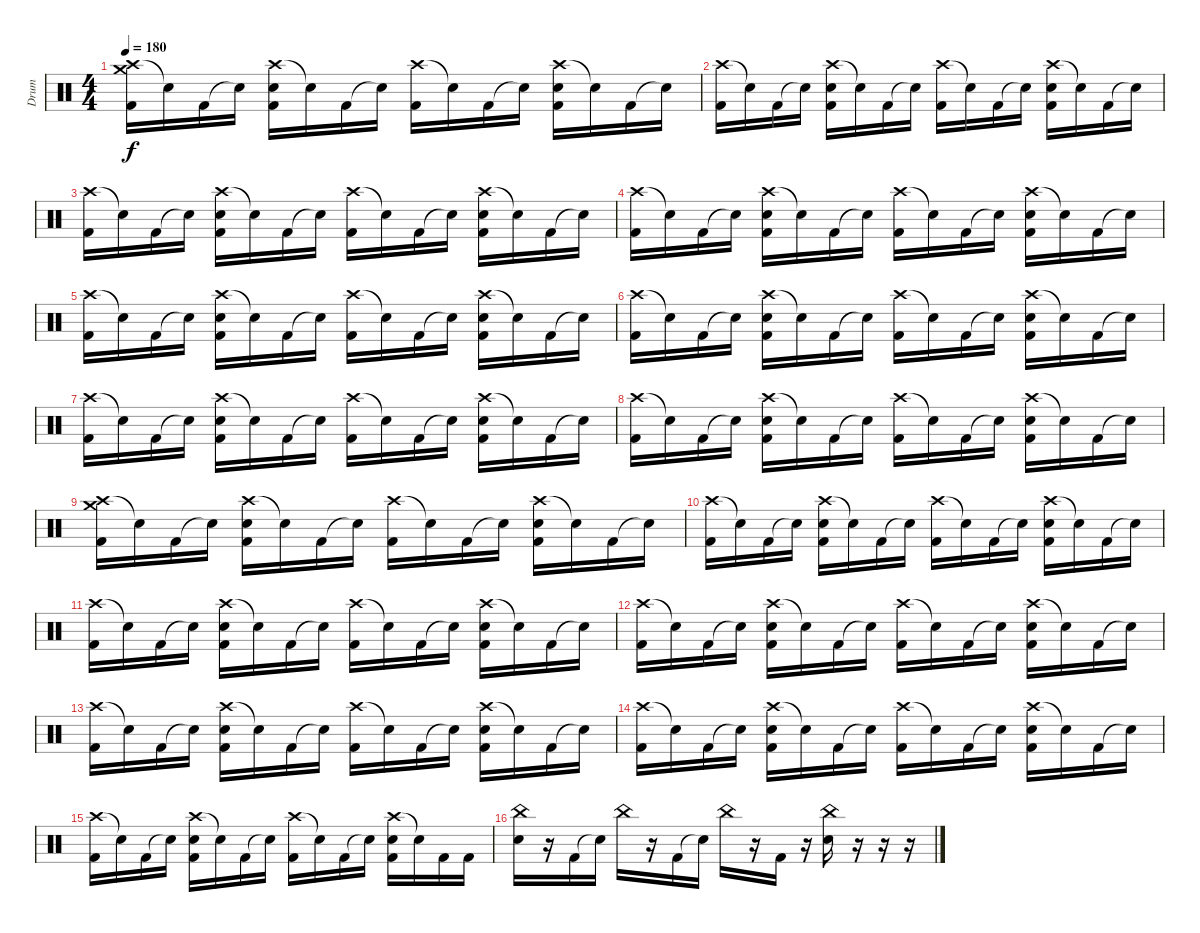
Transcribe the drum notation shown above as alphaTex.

\track ("Drum" "Drum") {instrument percussion}
\staff {score}
\articulation defaults
\ts (4 4)
\tempo 180
\clef neutral
\ks c
("Crash high (hit)" "Crash medium (hit)" "Kick (hit) 2").16{dy f} "Snare (hit)"{t}.16 "Kick (hit) 2".16 "Snare (hit)"{t}.16 ("Crash high (hit)" "Electric Snare (hit)" "Kick (hit) 2").16 "Snare (hit)"{t}.16 "Kick (hit) 2".16 "Snare (hit)"{t}.16 ("Crash high (hit)" "Kick (hit) 2").16 "Snare (hit)"{t}.16 "Kick (hit) 2".16 "Snare (hit)"{t}.16 ("Crash high (hit)" "Electric Snare (hit)" "Kick (hit) 2").16 "Snare (hit)"{t}.16 "Kick (hit) 2".16 "Snare (hit)"{t}.16 |
("Crash high (hit)" "Kick (hit) 2").16 "Snare (hit)"{t}.16 "Kick (hit) 2".16 "Snare (hit)"{t}.16 ("Crash high (hit)" "Electric Snare (hit)" "Kick (hit) 2").16 "Snare (hit)"{t}.16 "Kick (hit) 2".16 "Snare (hit)"{t}.16 ("Crash high (hit)" "Kick (hit) 2").16 "Snare (hit)"{t}.16 "Kick (hit) 2".16 "Snare (hit)"{t}.16 ("Crash high (hit)" "Electric Snare (hit)" "Kick (hit) 2").16 "Snare (hit)"{t}.16 "Kick (hit) 2".16 "Snare (hit)"{t}.16 |
("Crash high (hit)" "Kick (hit) 2").16 "Snare (hit)"{t}.16 "Kick (hit) 2".16 "Snare (hit)"{t}.16 ("Crash high (hit)" "Electric Snare (hit)" "Kick (hit) 2").16 "Snare (hit)"{t}.16 "Kick (hit) 2".16 "Snare (hit)"{t}.16 ("Crash high (hit)" "Kick (hit) 2").16 "Snare (hit)"{t}.16 "Kick (hit) 2".16 "Snare (hit)"{t}.16 ("Crash high (hit)" "Electric Snare (hit)" "Kick (hit) 2").16 "Snare (hit)"{t}.16 "Kick (hit) 2".16 "Snare (hit)"{t}.16 |
("Crash high (hit)" "Kick (hit) 2").16 "Snare (hit)"{t}.16 "Kick (hit) 2".16 "Snare (hit)"{t}.16 ("Crash high (hit)" "Electric Snare (hit)" "Kick (hit) 2").16 "Snare (hit)"{t}.16 "Kick (hit) 2".16 "Snare (hit)"{t}.16 ("Crash high (hit)" "Kick (hit) 2").16 "Snare (hit)"{t}.16 "Kick (hit) 2".16 "Snare (hit)"{t}.16 ("Crash high (hit)" "Electric Snare (hit)" "Kick (hit) 2").16 "Snare (hit)"{t}.16 "Kick (hit) 2".16 "Snare (hit)"{t}.16 |
("Crash high (hit)" "Kick (hit) 2").16 "Snare (hit)"{t}.16 "Kick (hit) 2".16 "Snare (hit)"{t}.16 ("Crash high (hit)" "Electric Snare (hit)" "Kick (hit) 2").16 "Snare (hit)"{t}.16 "Kick (hit) 2".16 "Snare (hit)"{t}.16 ("Crash high (hit)" "Kick (hit) 2").16 "Snare (hit)"{t}.16 "Kick (hit) 2".16 "Snare (hit)"{t}.16 ("Crash high (hit)" "Electric Snare (hit)" "Kick (hit) 2").16 "Snare (hit)"{t}.16 "Kick (hit) 2".16 "Snare (hit)"{t}.16 |
("Crash high (hit)" "Kick (hit) 2").16 "Snare (hit)"{t}.16 "Kick (hit) 2".16 "Snare (hit)"{t}.16 ("Crash high (hit)" "Electric Snare (hit)" "Kick (hit) 2").16 "Snare (hit)"{t}.16 "Kick (hit) 2".16 "Snare (hit)"{t}.16 ("Crash high (hit)" "Kick (hit) 2").16 "Snare (hit)"{t}.16 "Kick (hit) 2".16 "Snare (hit)"{t}.16 ("Crash high (hit)" "Electric Snare (hit)" "Kick (hit) 2").16 "Snare (hit)"{t}.16 "Kick (hit) 2".16 "Snare (hit)"{t}.16 |
("Crash high (hit)" "Kick (hit) 2").16 "Snare (hit)"{t}.16 "Kick (hit) 2".16 "Snare (hit)"{t}.16 ("Crash high (hit)" "Electric Snare (hit)" "Kick (hit) 2").16 "Snare (hit)"{t}.16 "Kick (hit) 2".16 "Snare (hit)"{t}.16 ("Crash high (hit)" "Kick (hit) 2").16 "Snare (hit)"{t}.16 "Kick (hit) 2".16 "Snare (hit)"{t}.16 ("Crash high (hit)" "Electric Snare (hit)" "Kick (hit) 2").16 "Snare (hit)"{t}.16 "Kick (hit) 2".16 "Snare (hit)"{t}.16 |
("Crash high (hit)" "Kick (hit) 2").16 "Snare (hit)"{t}.16 "Kick (hit) 2".16 "Snare (hit)"{t}.16 ("Crash high (hit)" "Electric Snare (hit)" "Kick (hit) 2").16 "Snare (hit)"{t}.16 "Kick (hit) 2".16 "Snare (hit)"{t}.16 ("Crash high (hit)" "Kick (hit) 2").16 "Snare (hit)"{t}.16 "Kick (hit) 2".16 "Snare (hit)"{t}.16 ("Crash high (hit)" "Electric Snare (hit)" "Kick (hit) 2").16 "Snare (hit)"{t}.16 "Kick (hit) 2".16 "Snare (hit)"{t}.16 |
("Crash high (hit)" "Crash medium (hit)" "Kick (hit) 2").16 "Snare (hit)"{t}.16 "Kick (hit) 2".16 "Snare (hit)"{t}.16 ("Crash high (hit)" "Electric Snare (hit)" "Kick (hit) 2").16 "Snare (hit)"{t}.16 "Kick (hit) 2".16 "Snare (hit)"{t}.16 ("Crash high (hit)" "Kick (hit) 2").16 "Snare (hit)"{t}.16 "Kick (hit) 2".16 "Snare (hit)"{t}.16 ("Crash high (hit)" "Electric Snare (hit)" "Kick (hit) 2").16 "Snare (hit)"{t}.16 "Kick (hit) 2".16 "Snare (hit)"{t}.16 |
("Crash high (hit)" "Kick (hit) 2").16 "Snare (hit)"{t}.16 "Kick (hit) 2".16 "Snare (hit)"{t}.16 ("Crash high (hit)" "Electric Snare (hit)" "Kick (hit) 2").16 "Snare (hit)"{t}.16 "Kick (hit) 2".16 "Snare (hit)"{t}.16 ("Crash high (hit)" "Kick (hit) 2").16 "Snare (hit)"{t}.16 "Kick (hit) 2".16 "Snare (hit)"{t}.16 ("Crash high (hit)" "Electric Snare (hit)" "Kick (hit) 2").16 "Snare (hit)"{t}.16 "Kick (hit) 2".16 "Snare (hit)"{t}.16 |
("Crash high (hit)" "Kick (hit) 2").16 "Snare (hit)"{t}.16 "Kick (hit) 2".16 "Snare (hit)"{t}.16 ("Crash high (hit)" "Electric Snare (hit)" "Kick (hit) 2").16 "Snare (hit)"{t}.16 "Kick (hit) 2".16 "Snare (hit)"{t}.16 ("Crash high (hit)" "Kick (hit) 2").16 "Snare (hit)"{t}.16 "Kick (hit) 2".16 "Snare (hit)"{t}.16 ("Crash high (hit)" "Electric Snare (hit)" "Kick (hit) 2").16 "Snare (hit)"{t}.16 "Kick (hit) 2".16 "Snare (hit)"{t}.16 |
("Crash high (hit)" "Kick (hit) 2").16 "Snare (hit)"{t}.16 "Kick (hit) 2".16 "Snare (hit)"{t}.16 ("Crash high (hit)" "Electric Snare (hit)" "Kick (hit) 2").16 "Snare (hit)"{t}.16 "Kick (hit) 2".16 "Snare (hit)"{t}.16 ("Crash high (hit)" "Kick (hit) 2").16 "Snare (hit)"{t}.16 "Kick (hit) 2".16 "Snare (hit)"{t}.16 ("Crash high (hit)" "Electric Snare (hit)" "Kick (hit) 2").16 "Snare (hit)"{t}.16 "Kick (hit) 2".16 "Snare (hit)"{t}.16 |
("Crash high (hit)" "Kick (hit) 2").16 "Snare (hit)"{t}.16 "Kick (hit) 2".16 "Snare (hit)"{t}.16 ("Crash high (hit)" "Electric Snare (hit)" "Kick (hit) 2").16 "Snare (hit)"{t}.16 "Kick (hit) 2".16 "Snare (hit)"{t}.16 ("Crash high (hit)" "Kick (hit) 2").16 "Snare (hit)"{t}.16 "Kick (hit) 2".16 "Snare (hit)"{t}.16 ("Crash high (hit)" "Electric Snare (hit)" "Kick (hit) 2").16 "Snare (hit)"{t}.16 "Kick (hit) 2".16 "Snare (hit)"{t}.16 |
("Crash high (hit)" "Kick (hit) 2").16 "Snare (hit)"{t}.16 "Kick (hit) 2".16 "Snare (hit)"{t}.16 ("Crash high (hit)" "Electric Snare (hit)" "Kick (hit) 2").16 "Snare (hit)"{t}.16 "Kick (hit) 2".16 "Snare (hit)"{t}.16 ("Crash high (hit)" "Kick (hit) 2").16 "Snare (hit)"{t}.16 "Kick (hit) 2".16 "Snare (hit)"{t}.16 ("Crash high (hit)" "Electric Snare (hit)" "Kick (hit) 2").16 "Snare (hit)"{t}.16 "Kick (hit) 2".16 "Snare (hit)"{t}.16 |
("Crash high (hit)" "Kick (hit) 2").16 "Snare (hit)"{t}.16 "Kick (hit) 2".16 "Snare (hit)"{t}.16 ("Crash high (hit)" "Electric Snare (hit)" "Kick (hit) 2").16 "Snare (hit)"{t}.16 "Kick (hit) 2".16 "Snare (hit)"{t}.16 ("Crash high (hit)" "Kick (hit) 2").16 "Snare (hit)"{t}.16 "Kick (hit) 2".16 "Snare (hit)"{t}.16 ("Crash high (hit)" "Electric Snare (hit)" "Kick (hit) 2").16 "Snare (hit)"{t}.16 "Kick (hit) 2".16 "Kick (hit) 2".16 |
("China (hit)" "Electric Snare (hit)").16 r.16 "Kick (hit) 2".16 "Snare (hit)"{t}.16 "China (hit)".16 r.16 "Kick (hit) 2".16 "Snare (hit)"{t}.16 "China (hit)".16 r.16 "Kick (hit) 2".16 r.16 ("China (hit)" "Electric Snare (hit)").16 r.16 r.16 r.16
